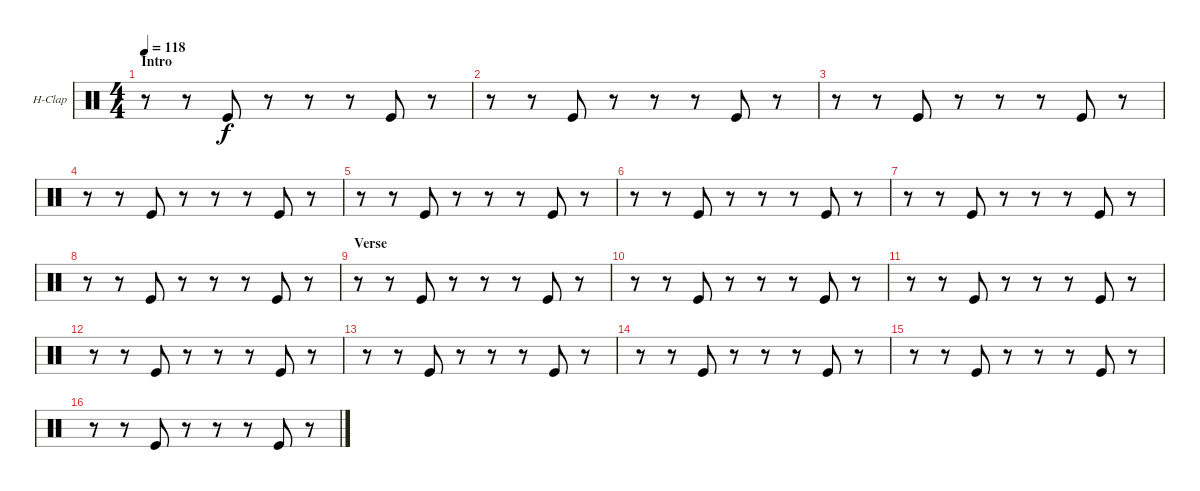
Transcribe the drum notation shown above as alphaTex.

\defaultSystemsLayout 4
\bracketExtendMode groupsimilarinstruments
\firstSystemTrackNameOrientation horizontal
\otherSystemsTrackNameOrientation horizontal
\track ("Hand Clap" "H-Clap") {instrument percussion}
\staff {score}
\articulation defaults
\ts (4 4)
\section ("" "Intro")
\tempo 118
\clef neutral
\ks c
r.8{dy f} r.8 "Kick (hit)".8 r.8 r.8 r.8 "Kick (hit)".8 r.8 |
r.8 r.8 "Kick (hit)".8 r.8 r.8 r.8 "Kick (hit)".8 r.8 |
r.8 r.8 "Kick (hit)".8 r.8 r.8 r.8 "Kick (hit)".8 r.8 |
r.8 r.8 "Kick (hit)".8 r.8 r.8 r.8 "Kick (hit)".8 r.8 |
r.8 r.8 "Kick (hit)".8 r.8 r.8 r.8 "Kick (hit)".8 r.8 |
r.8 r.8 "Kick (hit)".8 r.8 r.8 r.8 "Kick (hit)".8 r.8 |
r.8 r.8 "Kick (hit)".8 r.8 r.8 r.8 "Kick (hit)".8 r.8 |
r.8 r.8 "Kick (hit)".8 r.8 r.8 r.8 "Kick (hit)".8 r.8 |
\section ("" "Verse")
r.8 r.8 "Kick (hit)".8 r.8 r.8 r.8 "Kick (hit)".8 r.8 |
r.8 r.8 "Kick (hit)".8 r.8 r.8 r.8 "Kick (hit)".8 r.8 |
r.8 r.8 "Kick (hit)".8 r.8 r.8 r.8 "Kick (hit)".8 r.8 |
r.8 r.8 "Kick (hit)".8 r.8 r.8 r.8 "Kick (hit)".8 r.8 |
r.8 r.8 "Kick (hit)".8 r.8 r.8 r.8 "Kick (hit)".8 r.8 |
r.8 r.8 "Kick (hit)".8 r.8 r.8 r.8 "Kick (hit)".8 r.8 |
r.8 r.8 "Kick (hit)".8 r.8 r.8 r.8 "Kick (hit)".8 r.8 |
r.8 r.8 "Kick (hit)".8 r.8 r.8 r.8 "Kick (hit)".8 r.8
